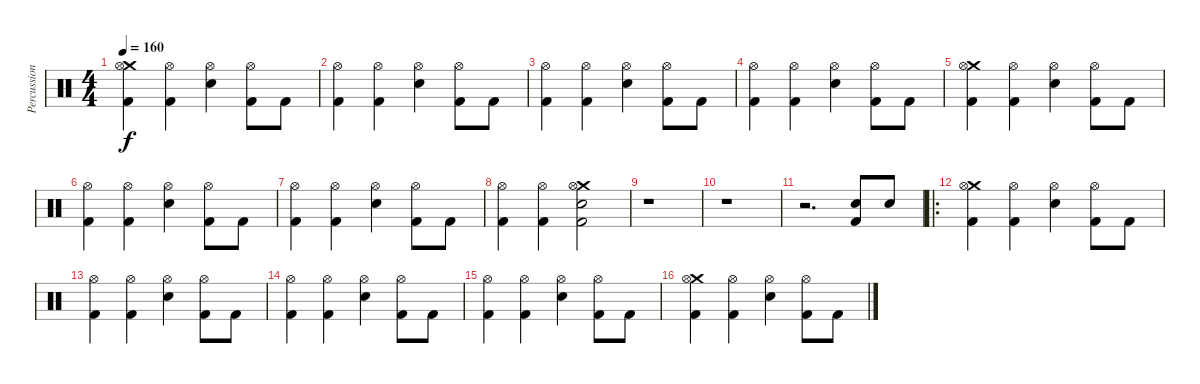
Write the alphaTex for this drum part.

\track ("Percussion" "Percussion") {instrument percussion}
\staff {score}
\articulation defaults
\ts (4 4)
\tempo 160
\clef neutral
\ks c
("Crash medium (hit)" "Hi-Hat (open)" "Kick (hit) 2").4{dy f} ("Hi-Hat (open)" "Kick (hit) 2").4 ("Hi-Hat (open)" "Electric Snare (hit)").4 ("Hi-Hat (open)" "Kick (hit) 2").8 "Kick (hit) 2".8 |
("Hi-Hat (open)" "Kick (hit) 2").4 ("Hi-Hat (open)" "Kick (hit) 2").4 ("Hi-Hat (open)" "Electric Snare (hit)").4 ("Hi-Hat (open)" "Kick (hit) 2").8 "Kick (hit) 2".8 |
("Hi-Hat (open)" "Kick (hit) 2").4 ("Hi-Hat (open)" "Kick (hit) 2").4 ("Hi-Hat (open)" "Electric Snare (hit)").4 ("Hi-Hat (open)" "Kick (hit) 2").8 "Kick (hit) 2".8 |
("Hi-Hat (open)" "Kick (hit) 2").4 ("Hi-Hat (open)" "Kick (hit) 2").4 ("Hi-Hat (open)" "Electric Snare (hit)").4 ("Hi-Hat (open)" "Kick (hit) 2").8 "Kick (hit) 2".8 |
("Crash medium (hit)" "Hi-Hat (open)" "Kick (hit) 2").4 ("Hi-Hat (open)" "Kick (hit) 2").4 ("Hi-Hat (open)" "Electric Snare (hit)").4 ("Hi-Hat (open)" "Kick (hit) 2").8 "Kick (hit) 2".8 |
("Hi-Hat (open)" "Kick (hit) 2").4 ("Hi-Hat (open)" "Kick (hit) 2").4 ("Hi-Hat (open)" "Electric Snare (hit)").4 ("Hi-Hat (open)" "Kick (hit) 2").8 "Kick (hit) 2".8 |
("Hi-Hat (open)" "Kick (hit) 2").4 ("Hi-Hat (open)" "Kick (hit) 2").4 ("Hi-Hat (open)" "Electric Snare (hit)").4 ("Hi-Hat (open)" "Kick (hit) 2").8 "Kick (hit) 2".8 |
("Hi-Hat (open)" "Kick (hit) 2").4 ("Hi-Hat (open)" "Kick (hit) 2").4 ("Crash medium (hit)" "Hi-Hat (open)" "Electric Snare (hit)" "Kick (hit) 2").2 |
r.1 |
r.1 |
r.2{d} ("Electric Snare (hit)" "Kick (hit) 2").8 "Electric Snare (hit)".8 |
\ro
("Crash medium (hit)" "Hi-Hat (open)" "Kick (hit) 2").4 ("Hi-Hat (open)" "Kick (hit) 2").4 ("Hi-Hat (open)" "Electric Snare (hit)").4 ("Hi-Hat (open)" "Kick (hit) 2").8 "Kick (hit) 2".8 |
("Hi-Hat (open)" "Kick (hit) 2").4 ("Hi-Hat (open)" "Kick (hit) 2").4 ("Hi-Hat (open)" "Electric Snare (hit)").4 ("Hi-Hat (open)" "Kick (hit) 2").8 "Kick (hit) 2".8 |
("Hi-Hat (open)" "Kick (hit) 2").4 ("Hi-Hat (open)" "Kick (hit) 2").4 ("Hi-Hat (open)" "Electric Snare (hit)").4 ("Hi-Hat (open)" "Kick (hit) 2").8 "Kick (hit) 2".8 |
("Hi-Hat (open)" "Kick (hit) 2").4 ("Hi-Hat (open)" "Kick (hit) 2").4 ("Hi-Hat (open)" "Electric Snare (hit)").4 ("Hi-Hat (open)" "Kick (hit) 2").8 "Kick (hit) 2".8 |
("Crash medium (hit)" "Hi-Hat (open)" "Kick (hit) 2").4 ("Hi-Hat (open)" "Kick (hit) 2").4 ("Hi-Hat (open)" "Electric Snare (hit)").4 ("Hi-Hat (open)" "Kick (hit) 2").8 "Kick (hit) 2".8
